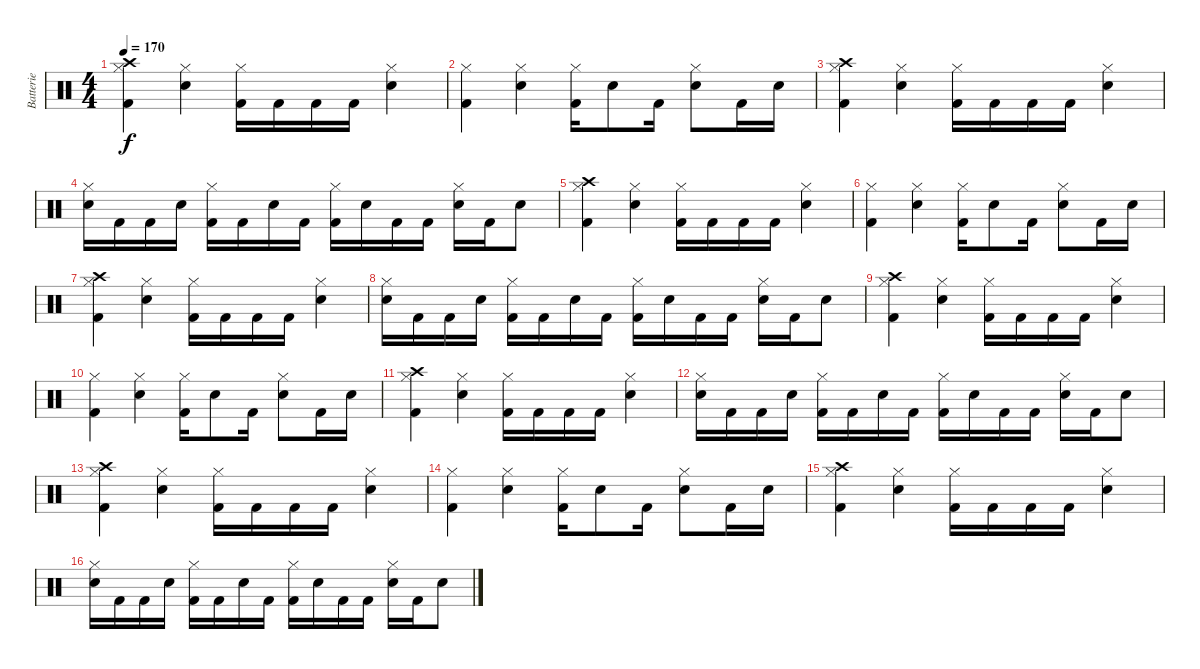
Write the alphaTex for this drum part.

\track ("Batterie" "Batterie") {instrument percussion}
\staff {score}
\articulation defaults
\ts (4 4)
\tempo 170
\clef neutral
\ks c
("Crash high (hit)" "Hi-Hat (closed)" "Kick (hit) 2").4{dy f} ("Hi-Hat (closed)" "Snare (hit) 2").4 ("Hi-Hat (closed)" "Kick (hit) 2").16 "Kick (hit) 2".16 "Kick (hit) 2".16 "Kick (hit) 2".16 ("Hi-Hat (closed)" "Snare (hit) 2").4 |
("Hi-Hat (closed)" "Kick (hit) 2").4 ("Hi-Hat (closed)" "Snare (hit) 2").4 ("Hi-Hat (closed)" "Kick (hit) 2").16 "Snare (hit) 2".8 "Kick (hit) 2".16 ("Hi-Hat (closed)" "Snare (hit) 2").8 "Kick (hit) 2".16 "Snare (hit) 2".16 |
("Crash high (hit)" "Hi-Hat (closed)" "Kick (hit) 2").4 ("Hi-Hat (closed)" "Snare (hit) 2").4 ("Hi-Hat (closed)" "Kick (hit) 2").16 "Kick (hit) 2".16 "Kick (hit) 2".16 "Kick (hit) 2".16 ("Hi-Hat (closed)" "Snare (hit) 2").4 |
("Hi-Hat (closed)" "Snare (hit) 2").16 "Kick (hit) 2".16 "Kick (hit) 2".16 "Snare (hit) 2".16 ("Hi-Hat (closed)" "Kick (hit) 2").16 "Kick (hit) 2".16 "Snare (hit) 2".16 "Kick (hit) 2".16 ("Hi-Hat (closed)" "Kick (hit) 2").16 "Snare (hit) 2".16 "Kick (hit) 2".16 "Kick (hit) 2".16 ("Hi-Hat (closed)" "Snare (hit) 2").16 "Kick (hit) 2".16 "Snare (hit) 2".8 |
("Crash high (hit)" "Hi-Hat (closed)" "Kick (hit) 2").4 ("Hi-Hat (closed)" "Snare (hit) 2").4 ("Hi-Hat (closed)" "Kick (hit) 2").16 "Kick (hit) 2".16 "Kick (hit) 2".16 "Kick (hit) 2".16 ("Hi-Hat (closed)" "Snare (hit) 2").4 |
("Hi-Hat (closed)" "Kick (hit) 2").4 ("Hi-Hat (closed)" "Snare (hit) 2").4 ("Hi-Hat (closed)" "Kick (hit) 2").16 "Snare (hit) 2".8 "Kick (hit) 2".16 ("Hi-Hat (closed)" "Snare (hit) 2").8 "Kick (hit) 2".16 "Snare (hit) 2".16 |
("Crash high (hit)" "Hi-Hat (closed)" "Kick (hit) 2").4 ("Hi-Hat (closed)" "Snare (hit) 2").4 ("Hi-Hat (closed)" "Kick (hit) 2").16 "Kick (hit) 2".16 "Kick (hit) 2".16 "Kick (hit) 2".16 ("Hi-Hat (closed)" "Snare (hit) 2").4 |
("Hi-Hat (closed)" "Snare (hit) 2").16 "Kick (hit) 2".16 "Kick (hit) 2".16 "Snare (hit) 2".16 ("Hi-Hat (closed)" "Kick (hit) 2").16 "Kick (hit) 2".16 "Snare (hit) 2".16 "Kick (hit) 2".16 ("Hi-Hat (closed)" "Kick (hit) 2").16 "Snare (hit) 2".16 "Kick (hit) 2".16 "Kick (hit) 2".16 ("Hi-Hat (closed)" "Snare (hit) 2").16 "Kick (hit) 2".16 "Snare (hit) 2".8 |
("Crash high (hit)" "Hi-Hat (closed)" "Kick (hit) 2").4 ("Hi-Hat (closed)" "Snare (hit) 2").4 ("Hi-Hat (closed)" "Kick (hit) 2").16 "Kick (hit) 2".16 "Kick (hit) 2".16 "Kick (hit) 2".16 ("Hi-Hat (closed)" "Snare (hit) 2").4 |
("Hi-Hat (closed)" "Kick (hit) 2").4 ("Hi-Hat (closed)" "Snare (hit) 2").4 ("Hi-Hat (closed)" "Kick (hit) 2").16 "Snare (hit) 2".8 "Kick (hit) 2".16 ("Hi-Hat (closed)" "Snare (hit) 2").8 "Kick (hit) 2".16 "Snare (hit) 2".16 |
("Crash high (hit)" "Hi-Hat (closed)" "Kick (hit) 2").4 ("Hi-Hat (closed)" "Snare (hit) 2").4 ("Hi-Hat (closed)" "Kick (hit) 2").16 "Kick (hit) 2".16 "Kick (hit) 2".16 "Kick (hit) 2".16 ("Hi-Hat (closed)" "Snare (hit) 2").4 |
("Hi-Hat (closed)" "Snare (hit) 2").16 "Kick (hit) 2".16 "Kick (hit) 2".16 "Snare (hit) 2".16 ("Hi-Hat (closed)" "Kick (hit) 2").16 "Kick (hit) 2".16 "Snare (hit) 2".16 "Kick (hit) 2".16 ("Hi-Hat (closed)" "Kick (hit) 2").16 "Snare (hit) 2".16 "Kick (hit) 2".16 "Kick (hit) 2".16 ("Hi-Hat (closed)" "Snare (hit) 2").16 "Kick (hit) 2".16 "Snare (hit) 2".8 |
("Crash high (hit)" "Hi-Hat (closed)" "Kick (hit) 2").4 ("Hi-Hat (closed)" "Snare (hit) 2").4 ("Hi-Hat (closed)" "Kick (hit) 2").16 "Kick (hit) 2".16 "Kick (hit) 2".16 "Kick (hit) 2".16 ("Hi-Hat (closed)" "Snare (hit) 2").4 |
("Hi-Hat (closed)" "Kick (hit) 2").4 ("Hi-Hat (closed)" "Snare (hit) 2").4 ("Hi-Hat (closed)" "Kick (hit) 2").16 "Snare (hit) 2".8 "Kick (hit) 2".16 ("Hi-Hat (closed)" "Snare (hit) 2").8 "Kick (hit) 2".16 "Snare (hit) 2".16 |
("Crash high (hit)" "Hi-Hat (closed)" "Kick (hit) 2").4 ("Hi-Hat (closed)" "Snare (hit) 2").4 ("Hi-Hat (closed)" "Kick (hit) 2").16 "Kick (hit) 2".16 "Kick (hit) 2".16 "Kick (hit) 2".16 ("Hi-Hat (closed)" "Snare (hit) 2").4 |
("Hi-Hat (closed)" "Snare (hit) 2").16 "Kick (hit) 2".16 "Kick (hit) 2".16 "Snare (hit) 2".16 ("Hi-Hat (closed)" "Kick (hit) 2").16 "Kick (hit) 2".16 "Snare (hit) 2".16 "Kick (hit) 2".16 ("Hi-Hat (closed)" "Kick (hit) 2").16 "Snare (hit) 2".16 "Kick (hit) 2".16 "Kick (hit) 2".16 ("Hi-Hat (closed)" "Snare (hit) 2").16 "Kick (hit) 2".16 "Snare (hit) 2".8
